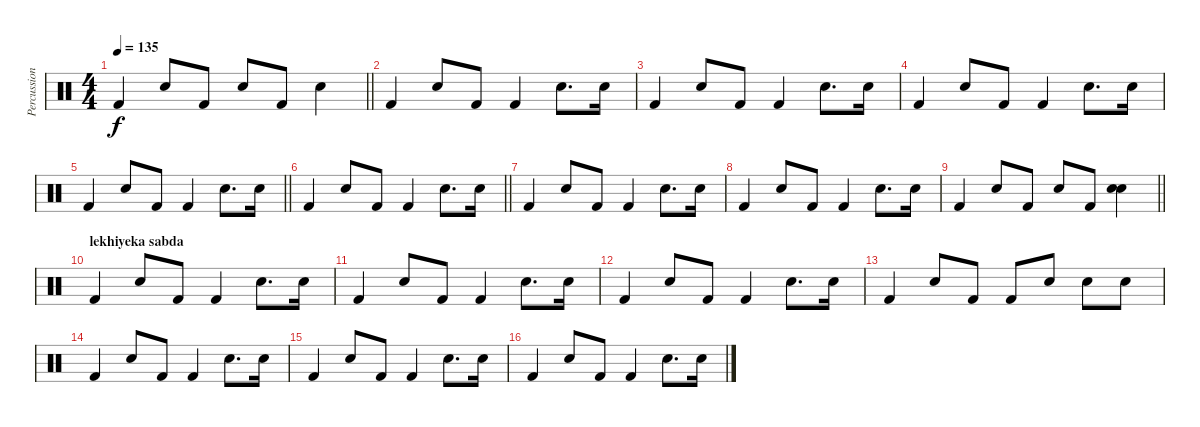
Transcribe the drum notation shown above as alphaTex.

\track ("Percussion" "Percussion") {instrument percussion}
\staff {score}
\articulation defaults
\ts (4 4)
\tempo 135
\clef neutral
\barLineRight lightlight
\ks c "Kick (hit) 2".4{dy f} "Electric Snare (hit)".8 "Kick (hit) 2".8 "Electric Snare (hit)".8 "Kick (hit) 2".8 "Electric Snare (hit)".4
|
"Kick (hit) 2".4 "Electric Snare (hit)".8 "Kick (hit) 2".8 "Kick (hit) 2".4 "Electric Snare (hit)".8{d} "Snare (hit)".16 |
"Kick (hit) 2".4 "Electric Snare (hit)".8 "Kick (hit) 2".8 "Kick (hit) 2".4 "Electric Snare (hit)".8{d} "Snare (hit)".16 |
"Kick (hit) 2".4 "Electric Snare (hit)".8 "Kick (hit) 2".8 "Kick (hit) 2".4 "Electric Snare (hit)".8{d} "Snare (hit)".16 |
\barLineRight lightlight "Kick (hit) 2".4 "Electric Snare (hit)".8 "Kick (hit) 2".8 "Kick (hit) 2".4 "Electric Snare (hit)".8{d} "Snare (hit)".16
|
\barLineRight lightlight "Kick (hit) 2".4 "Electric Snare (hit)".8 "Kick (hit) 2".8 "Kick (hit) 2".4 "Electric Snare (hit)".8{d} "Snare (hit)".16
|
"Kick (hit) 2".4 "Electric Snare (hit)".8 "Kick (hit) 2".8 "Kick (hit) 2".4 "Electric Snare (hit)".8{d} "Snare (hit)".16 |
"Kick (hit) 2".4 "Electric Snare (hit)".8 "Kick (hit) 2".8 "Kick (hit) 2".4 "Electric Snare (hit)".8{d} "Snare (hit)".16 |
\barLineRight lightlight "Kick (hit) 2".4 "Electric Snare (hit)".8 "Kick (hit) 2".8 "Electric Snare (hit)".8 "Kick (hit) 2".8
("Electric Snare (hit)" "Snare (hit)").4 |
\section ("" "lekhiyeka sabda")
"Kick (hit) 2".4 "Electric Snare (hit)".8 "Kick (hit) 2".8 "Kick (hit) 2".4 "Electric Snare (hit)".8{d} "Snare (hit)".16 |
"Kick (hit) 2".4 "Electric Snare (hit)".8 "Kick (hit) 2".8 "Kick (hit) 2".4 "Electric Snare (hit)".8{d} "Snare (hit)".16 |
"Kick (hit) 2".4 "Electric Snare (hit)".8 "Kick (hit) 2".8 "Kick (hit) 2".4 "Electric Snare (hit)".8{d} "Snare (hit)".16 |
"Kick (hit) 2".4 "Electric Snare (hit)".8 "Kick (hit) 2".8 "Kick (hit) 2".8 "Electric Snare (hit)".8 "Electric Snare (hit)".8 "Snare (hit)".8 |
"Kick (hit) 2".4 "Electric Snare (hit)".8 "Kick (hit) 2".8 "Kick (hit) 2".4 "Electric Snare (hit)".8{d} "Snare (hit)".16 |
"Kick (hit) 2".4 "Electric Snare (hit)".8 "Kick (hit) 2".8 "Kick (hit) 2".4 "Electric Snare (hit)".8{d} "Snare (hit)".16 |
"Kick (hit) 2".4 "Electric Snare (hit)".8 "Kick (hit) 2".8 "Kick (hit) 2".4 "Electric Snare (hit)".8{d} "Snare (hit)".16
